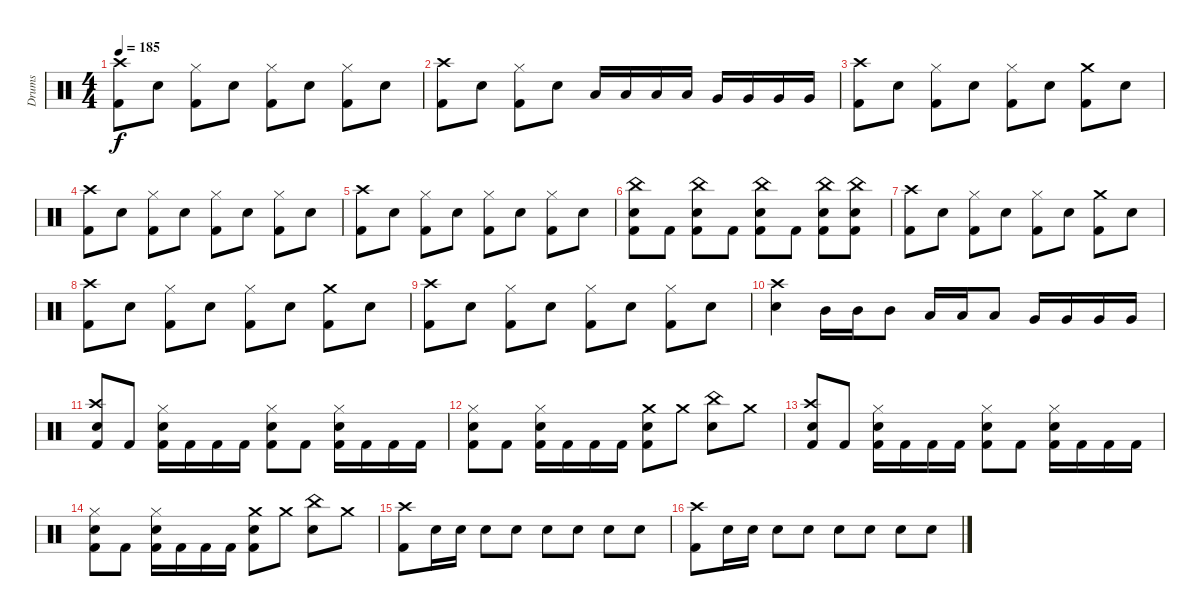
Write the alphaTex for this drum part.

\track ("Drums" "Drums") {instrument percussion}
\staff {score}
\articulation defaults
\ts (4 4)
\tempo 185
\clef neutral
\ks c
("Kick (hit) 2" "Crash high (hit)").8{dy f} "Snare (hit) 2".8 ("Kick (hit) 2" "Hi-Hat (closed)").8 "Snare (hit) 2".8 ("Kick (hit) 2" "Hi-Hat (closed)").8 "Snare (hit) 2".8 ("Kick (hit) 2" "Hi-Hat (closed)").8 "Snare (hit) 2".8 |
("Kick (hit) 2" "Crash high (hit)").8 "Snare (hit) 2".8 ("Kick (hit) 2" "Hi-Hat (closed)").8 "Snare (hit) 2".8 "Low Tom (hit)".16 "Low Tom (hit)".16 "Low Tom (hit)".16 "Low Tom (hit)".16 "Very Low Tom (hit)".16 "Very Low Tom (hit)".16 "Very Low Tom (hit)".16 "Very Low Tom (hit)".16 |
("Kick (hit) 2" "Crash high (hit)").8 "Snare (hit) 2".8 ("Kick (hit) 2" "Hi-Hat (closed)").8 "Snare (hit) 2".8 ("Kick (hit) 2" "Hi-Hat (closed)").8 "Snare (hit) 2".8 ("Kick (hit) 2" "Crash medium (hit)").8 "Snare (hit) 2".8 |
("Kick (hit) 2" "Crash high (hit)").8 "Snare (hit) 2".8 ("Kick (hit) 2" "Hi-Hat (closed)").8 "Snare (hit) 2".8 ("Kick (hit) 2" "Hi-Hat (closed)").8 "Snare (hit) 2".8 ("Kick (hit) 2" "Hi-Hat (closed)").8 "Snare (hit) 2".8 |
("Kick (hit) 2" "Crash high (hit)").8 "Snare (hit) 2".8 ("Kick (hit) 2" "Hi-Hat (closed)").8 "Snare (hit) 2".8 ("Kick (hit) 2" "Hi-Hat (closed)").8 "Snare (hit) 2".8 ("Kick (hit) 2" "Hi-Hat (closed)").8 "Snare (hit) 2".8 |
("Kick (hit) 2" "Snare (hit) 2" "China (hit)").8 "Kick (hit) 2".8 ("Kick (hit) 2" "Snare (hit) 2" "China (hit)").8 "Kick (hit) 2".8 ("Kick (hit) 2" "Snare (hit) 2" "China (hit)").8 "Kick (hit) 2".8 ("Kick (hit) 2" "Snare (hit) 2" "China (hit)").8 ("Kick (hit) 2" "Snare (hit) 2" "China (hit)").8 |
("Kick (hit) 2" "Crash high (hit)").8 "Snare (hit) 2".8 ("Kick (hit) 2" "Hi-Hat (closed)").8 "Snare (hit) 2".8 ("Kick (hit) 2" "Hi-Hat (closed)").8 "Snare (hit) 2".8 ("Kick (hit) 2" "Crash medium (hit)").8 "Snare (hit) 2".8 |
("Kick (hit) 2" "Crash high (hit)").8 "Snare (hit) 2".8 ("Kick (hit) 2" "Hi-Hat (closed)").8 "Snare (hit) 2".8 ("Kick (hit) 2" "Hi-Hat (closed)").8 "Snare (hit) 2".8 ("Kick (hit) 2" "Crash medium (hit)").8 "Snare (hit) 2".8 |
("Kick (hit) 2" "Crash high (hit)").8 "Snare (hit) 2".8 ("Kick (hit) 2" "Hi-Hat (closed)").8 "Snare (hit) 2".8 ("Kick (hit) 2" "Hi-Hat (closed)").8 "Snare (hit) 2".8 ("Kick (hit) 2" "Hi-Hat (closed)").8 "Snare (hit) 2".8 |
("Snare (hit) 2" "Crash high (hit)").4 "Mid Tom (hit)".16 "Mid Tom (hit)".16 "Mid Tom (hit)".8 "Low Tom (hit)".16 "Low Tom (hit)".16 "Low Tom (hit)".8 "Very Low Tom (hit)".16 "Very Low Tom (hit)".16 "Very Low Tom (hit)".16 "Very Low Tom (hit)".16 |
("Kick (hit) 2" "Snare (hit) 2" "Crash high (hit)").8 "Kick (hit) 2".8 ("Kick (hit) 2" "Snare (hit) 2" "Hi-Hat (closed)").16 "Kick (hit) 2".16 "Kick (hit) 2".16 "Kick (hit) 2".16 ("Kick (hit) 2" "Snare (hit) 2" "Hi-Hat (closed)").8 "Kick (hit) 2".8 ("Kick (hit) 2" "Snare (hit) 2" "Hi-Hat (closed)").16 "Kick (hit) 2".16 "Kick (hit) 2".16 "Kick (hit) 2".16 |
("Kick (hit) 2" "Snare (hit) 2" "Hi-Hat (closed)").8 "Kick (hit) 2".8 ("Kick (hit) 2" "Snare (hit) 2" "Hi-Hat (closed)").16 "Kick (hit) 2".16 "Kick (hit) 2".16 "Kick (hit) 2".16 ("Kick (hit) 2" "Snare (hit) 2" "Crash medium (hit)").8 "Crash medium (hit)".8 ("Snare (hit) 2" "China (hit)").8 "Crash medium (hit)".8 |
("Kick (hit) 2" "Snare (hit) 2" "Crash high (hit)").8 "Kick (hit) 2".8 ("Kick (hit) 2" "Snare (hit) 2" "Hi-Hat (closed)").16 "Kick (hit) 2".16 "Kick (hit) 2".16 "Kick (hit) 2".16 ("Kick (hit) 2" "Snare (hit) 2" "Hi-Hat (closed)").8 "Kick (hit) 2".8 ("Kick (hit) 2" "Snare (hit) 2" "Hi-Hat (closed)").16 "Kick (hit) 2".16 "Kick (hit) 2".16 "Kick (hit) 2".16 |
("Kick (hit) 2" "Snare (hit) 2" "Hi-Hat (closed)").8 "Kick (hit) 2".8 ("Kick (hit) 2" "Snare (hit) 2" "Hi-Hat (closed)").16 "Kick (hit) 2".16 "Kick (hit) 2".16 "Kick (hit) 2".16 ("Kick (hit) 2" "Snare (hit) 2" "Crash medium (hit)").8 "Crash medium (hit)".8 ("Snare (hit) 2" "China (hit)").8 "Crash medium (hit)".8 |
("Kick (hit) 2" "Crash high (hit)").8 "Snare (hit) 2".16 "Snare (hit) 2".16 "Snare (hit) 2".8 "Snare (hit) 2".8 "Snare (hit) 2".8 "Snare (hit) 2".8 "Snare (hit) 2".8 "Snare (hit) 2".8 |
("Kick (hit) 2" "Crash high (hit)").8 "Snare (hit) 2".16 "Snare (hit) 2".16 "Snare (hit) 2".8 "Snare (hit) 2".8 "Snare (hit) 2".8 "Snare (hit) 2".8 "Snare (hit) 2".8 "Snare (hit) 2".8
